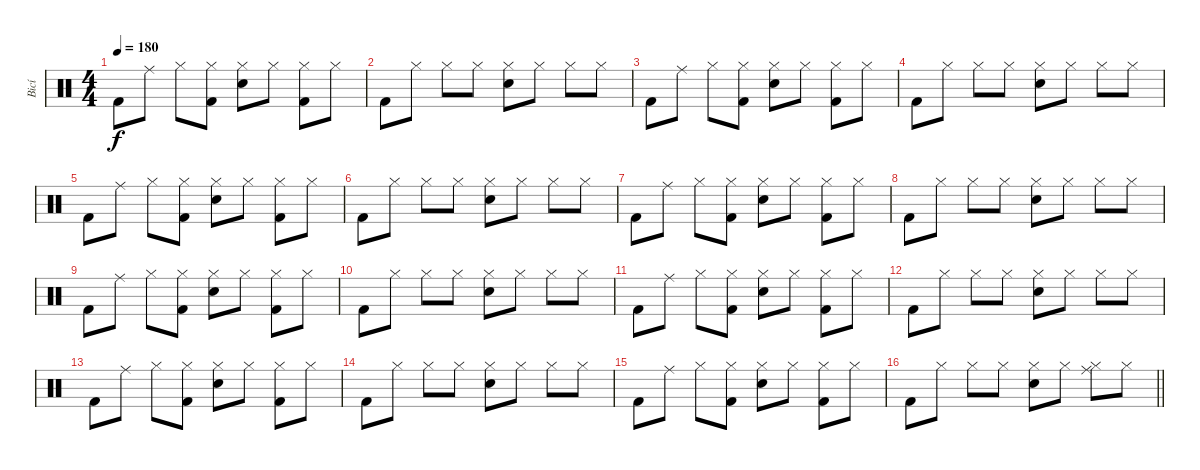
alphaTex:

\track ("Bicí" "Bicí") {instrument percussion}
\staff {score}
\articulation defaults
\ts (4 4)
\tempo 180
\clef neutral
\ks c "Kick (hit) 2".8{dy f} "Ride (middle)".8 "Hi-Hat (closed)".8
("Kick (hit) 2" "Hi-Hat (closed)").8 ("Hand Clap (hit)" "Hi-Hat (closed)").8 "Hi-Hat (closed)".8 ("Kick (hit) 2" "Hi-Hat (closed)").8 "Hi-Hat (closed)".8 |
"Kick (hit) 2".8 "Hi-Hat (closed)".8 "Hi-Hat (closed)".8 "Hi-Hat (closed)".8 ("Hand Clap (hit)" "Hi-Hat (closed)").8 "Hi-Hat (closed)".8 "Hi-Hat (closed)".8 "Hi-Hat (closed)".8 |
"Kick (hit) 2".8 "Ride (middle)".8 "Hi-Hat (closed)".8 ("Kick (hit) 2" "Hi-Hat (closed)").8 ("Hand Clap (hit)" "Hi-Hat (closed)").8 "Hi-Hat (closed)".8 ("Kick (hit) 2" "Hi-Hat (closed)").8 "Hi-Hat (closed)".8 |
"Kick (hit) 2".8 "Hi-Hat (closed)".8 "Hi-Hat (closed)".8 "Hi-Hat (closed)".8 ("Hand Clap (hit)" "Hi-Hat (closed)").8 "Hi-Hat (closed)".8 "Hi-Hat (closed)".8 "Hi-Hat (closed)".8 |
"Kick (hit) 2".8 "Ride (middle)".8 "Hi-Hat (closed)".8 ("Kick (hit) 2" "Hi-Hat (closed)").8 ("Hand Clap (hit)" "Hi-Hat (closed)").8 "Hi-Hat (closed)".8 ("Kick (hit) 2" "Hi-Hat (closed)").8 "Hi-Hat (closed)".8 |
"Kick (hit) 2".8 "Hi-Hat (closed)".8 "Hi-Hat (closed)".8 "Hi-Hat (closed)".8 ("Hand Clap (hit)" "Hi-Hat (closed)").8 "Hi-Hat (closed)".8 "Hi-Hat (closed)".8 "Hi-Hat (closed)".8 |
"Kick (hit) 2".8 "Ride (middle)".8 "Hi-Hat (closed)".8 ("Kick (hit) 2" "Hi-Hat (closed)").8 ("Hand Clap (hit)" "Hi-Hat (closed)").8 "Hi-Hat (closed)".8 ("Kick (hit) 2" "Hi-Hat (closed)").8 "Hi-Hat (closed)".8 |
"Kick (hit) 2".8 "Hi-Hat (closed)".8 "Hi-Hat (closed)".8 "Hi-Hat (closed)".8 ("Hand Clap (hit)" "Hi-Hat (closed)").8 "Hi-Hat (closed)".8 "Hi-Hat (closed)".8 "Hi-Hat (closed)".8 |
"Kick (hit) 2".8 "Ride (middle)".8 "Hi-Hat (closed)".8 ("Kick (hit) 2" "Hi-Hat (closed)").8 ("Hand Clap (hit)" "Hi-Hat (closed)").8 "Hi-Hat (closed)".8 ("Kick (hit) 2" "Hi-Hat (closed)").8 "Hi-Hat (closed)".8 |
"Kick (hit) 2".8 "Hi-Hat (closed)".8 "Hi-Hat (closed)".8 "Hi-Hat (closed)".8 ("Hand Clap (hit)" "Hi-Hat (closed)").8 "Hi-Hat (closed)".8 "Hi-Hat (closed)".8 "Hi-Hat (closed)".8 |
"Kick (hit) 2".8 "Ride (middle)".8 "Hi-Hat (closed)".8 ("Kick (hit) 2" "Hi-Hat (closed)").8 ("Hand Clap (hit)" "Hi-Hat (closed)").8 "Hi-Hat (closed)".8 ("Kick (hit) 2" "Hi-Hat (closed)").8 "Hi-Hat (closed)".8 |
"Kick (hit) 2".8 "Hi-Hat (closed)".8 "Hi-Hat (closed)".8 "Hi-Hat (closed)".8 ("Hand Clap (hit)" "Hi-Hat (closed)").8 "Hi-Hat (closed)".8 "Hi-Hat (closed)".8 "Hi-Hat (closed)".8 |
"Kick (hit) 2".8 "Ride (middle)".8 "Hi-Hat (closed)".8 ("Kick (hit) 2" "Hi-Hat (closed)").8 ("Hand Clap (hit)" "Hi-Hat (closed)").8 "Hi-Hat (closed)".8 ("Kick (hit) 2" "Hi-Hat (closed)").8 "Hi-Hat (closed)".8 |
"Kick (hit) 2".8 "Hi-Hat (closed)".8 "Hi-Hat (closed)".8 "Hi-Hat (closed)".8 ("Hand Clap (hit)" "Hi-Hat (closed)").8 "Hi-Hat (closed)".8 "Hi-Hat (closed)".8 "Hi-Hat (closed)".8 |
"Kick (hit) 2".8 "Ride (middle)".8 "Hi-Hat (closed)".8 ("Kick (hit) 2" "Hi-Hat (closed)").8 ("Hand Clap (hit)" "Hi-Hat (closed)").8 "Hi-Hat (closed)".8 ("Kick (hit) 2" "Hi-Hat (closed)").8 "Hi-Hat (closed)".8 |
\barLineRight lightlight "Kick (hit) 2".8 "Hi-Hat (closed)".8 "Hi-Hat (closed)".8 "Hi-Hat (closed)".8
("Hand Clap (hit)" "Hi-Hat (closed)").8 "Hi-Hat (closed)".8 ("Hi-Hat (closed)" "Ride (middle)").8 "Hi-Hat (closed)".8
